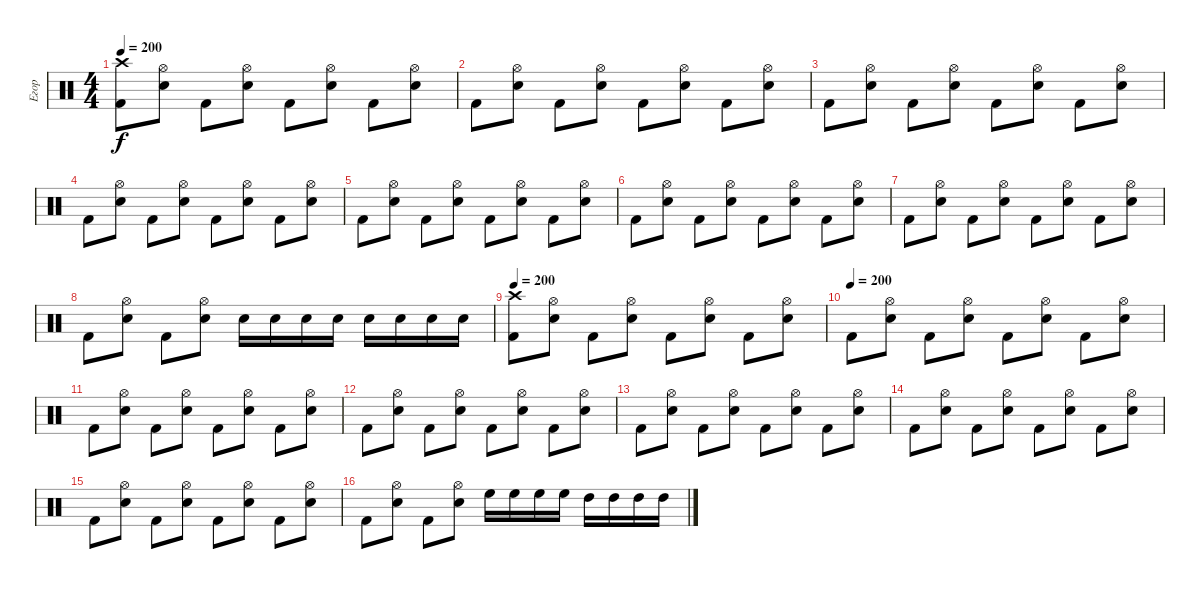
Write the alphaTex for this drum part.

\track ("Егор" "Егор") {instrument percussion}
\staff {score}
\articulation defaults
\ts (4 4)
\tempo 200
\clef neutral
\ks c
("Crash high (hit)" "Kick (hit) 2").8{dy f} ("Hi-Hat (open)" "Snare (hit) 2").8 "Kick (hit) 2".8 ("Hi-Hat (open)" "Snare (hit) 2").8 "Kick (hit) 2".8 ("Hi-Hat (open)" "Snare (hit) 2").8 "Kick (hit) 2".8 ("Hi-Hat (open)" "Snare (hit) 2").8 |
"Kick (hit) 2".8 ("Hi-Hat (open)" "Snare (hit) 2").8 "Kick (hit) 2".8 ("Hi-Hat (open)" "Snare (hit) 2").8 "Kick (hit) 2".8 ("Hi-Hat (open)" "Snare (hit) 2").8 "Kick (hit) 2".8 ("Hi-Hat (open)" "Snare (hit) 2").8 |
"Kick (hit) 2".8 ("Hi-Hat (open)" "Snare (hit) 2").8 "Kick (hit) 2".8 ("Hi-Hat (open)" "Snare (hit) 2").8 "Kick (hit) 2".8 ("Hi-Hat (open)" "Snare (hit) 2").8 "Kick (hit) 2".8 ("Hi-Hat (open)" "Snare (hit) 2").8 |
"Kick (hit) 2".8 ("Hi-Hat (open)" "Snare (hit) 2").8 "Kick (hit) 2".8 ("Hi-Hat (open)" "Snare (hit) 2").8 "Kick (hit) 2".8 ("Hi-Hat (open)" "Snare (hit) 2").8 "Kick (hit) 2".8 ("Hi-Hat (open)" "Snare (hit) 2").8 |
"Kick (hit) 2".8 ("Hi-Hat (open)" "Snare (hit) 2").8 "Kick (hit) 2".8 ("Hi-Hat (open)" "Snare (hit) 2").8 "Kick (hit) 2".8 ("Hi-Hat (open)" "Snare (hit) 2").8 "Kick (hit) 2".8 ("Hi-Hat (open)" "Snare (hit) 2").8 |
"Kick (hit) 2".8 ("Hi-Hat (open)" "Snare (hit) 2").8 "Kick (hit) 2".8 ("Hi-Hat (open)" "Snare (hit) 2").8 "Kick (hit) 2".8 ("Hi-Hat (open)" "Snare (hit) 2").8 "Kick (hit) 2".8 ("Hi-Hat (open)" "Snare (hit) 2").8 |
"Kick (hit) 2".8 ("Hi-Hat (open)" "Snare (hit) 2").8 "Kick (hit) 2".8 ("Hi-Hat (open)" "Snare (hit) 2").8 "Kick (hit) 2".8 ("Hi-Hat (open)" "Snare (hit) 2").8 "Kick (hit) 2".8 ("Hi-Hat (open)" "Snare (hit) 2").8 |
"Kick (hit) 2".8 ("Hi-Hat (open)" "Snare (hit) 2").8 "Kick (hit) 2".8 ("Hi-Hat (open)" "Snare (hit) 2").8 "Snare (hit) 2".16 "Snare (hit) 2".16 "Snare (hit) 2".16 "Snare (hit) 2".16 "Snare (hit) 2".16 "Snare (hit) 2".16 "Snare (hit) 2".16 "Snare (hit) 2".16 |
\tempo 200
("Crash high (hit)" "Kick (hit) 2").8 ("Hi-Hat (open)" "Snare (hit) 2").8 "Kick (hit) 2".8 ("Hi-Hat (open)" "Snare (hit) 2").8 "Kick (hit) 2".8 ("Hi-Hat (open)" "Snare (hit) 2").8 "Kick (hit) 2".8 ("Hi-Hat (open)" "Snare (hit) 2").8 |
\tempo (200)
"Kick (hit) 2".8 ("Hi-Hat (open)" "Snare (hit) 2").8 "Kick (hit) 2".8 ("Hi-Hat (open)" "Snare (hit) 2").8 "Kick (hit) 2".8 ("Hi-Hat (open)" "Snare (hit) 2").8 "Kick (hit) 2".8 ("Hi-Hat (open)" "Snare (hit) 2").8 |
"Kick (hit) 2".8 ("Hi-Hat (open)" "Snare (hit) 2").8 "Kick (hit) 2".8 ("Hi-Hat (open)" "Snare (hit) 2").8 "Kick (hit) 2".8 ("Hi-Hat (open)" "Snare (hit) 2").8 "Kick (hit) 2".8 ("Hi-Hat (open)" "Snare (hit) 2").8 |
"Kick (hit) 2".8 ("Hi-Hat (open)" "Snare (hit) 2").8 "Kick (hit) 2".8 ("Hi-Hat (open)" "Snare (hit) 2").8 "Kick (hit) 2".8 ("Hi-Hat (open)" "Snare (hit) 2").8 "Kick (hit) 2".8 ("Hi-Hat (open)" "Snare (hit) 2").8 |
"Kick (hit) 2".8 ("Hi-Hat (open)" "Snare (hit) 2").8 "Kick (hit) 2".8 ("Hi-Hat (open)" "Snare (hit) 2").8 "Kick (hit) 2".8 ("Hi-Hat (open)" "Snare (hit) 2").8 "Kick (hit) 2".8 ("Hi-Hat (open)" "Snare (hit) 2").8 |
"Kick (hit) 2".8 ("Hi-Hat (open)" "Snare (hit) 2").8 "Kick (hit) 2".8 ("Hi-Hat (open)" "Snare (hit) 2").8 "Kick (hit) 2".8 ("Hi-Hat (open)" "Snare (hit) 2").8 "Kick (hit) 2".8 ("Hi-Hat (open)" "Snare (hit) 2").8 |
"Kick (hit) 2".8 ("Hi-Hat (open)" "Snare (hit) 2").8 "Kick (hit) 2".8 ("Hi-Hat (open)" "Snare (hit) 2").8 "Kick (hit) 2".8 ("Hi-Hat (open)" "Snare (hit) 2").8 "Kick (hit) 2".8 ("Hi-Hat (open)" "Snare (hit) 2").8 |
"Kick (hit) 2".8 ("Hi-Hat (open)" "Snare (hit) 2").8 "Kick (hit) 2".8 ("Hi-Hat (open)" "Snare (hit) 2").8 "High Floor Tom (hit)".16 "High Floor Tom (hit)".16 "High Floor Tom (hit)".16 "High Floor Tom (hit)".16 "High Tom (hit)".16 "High Tom (hit)".16 "High Tom (hit)".16 "High Tom (hit)".16
